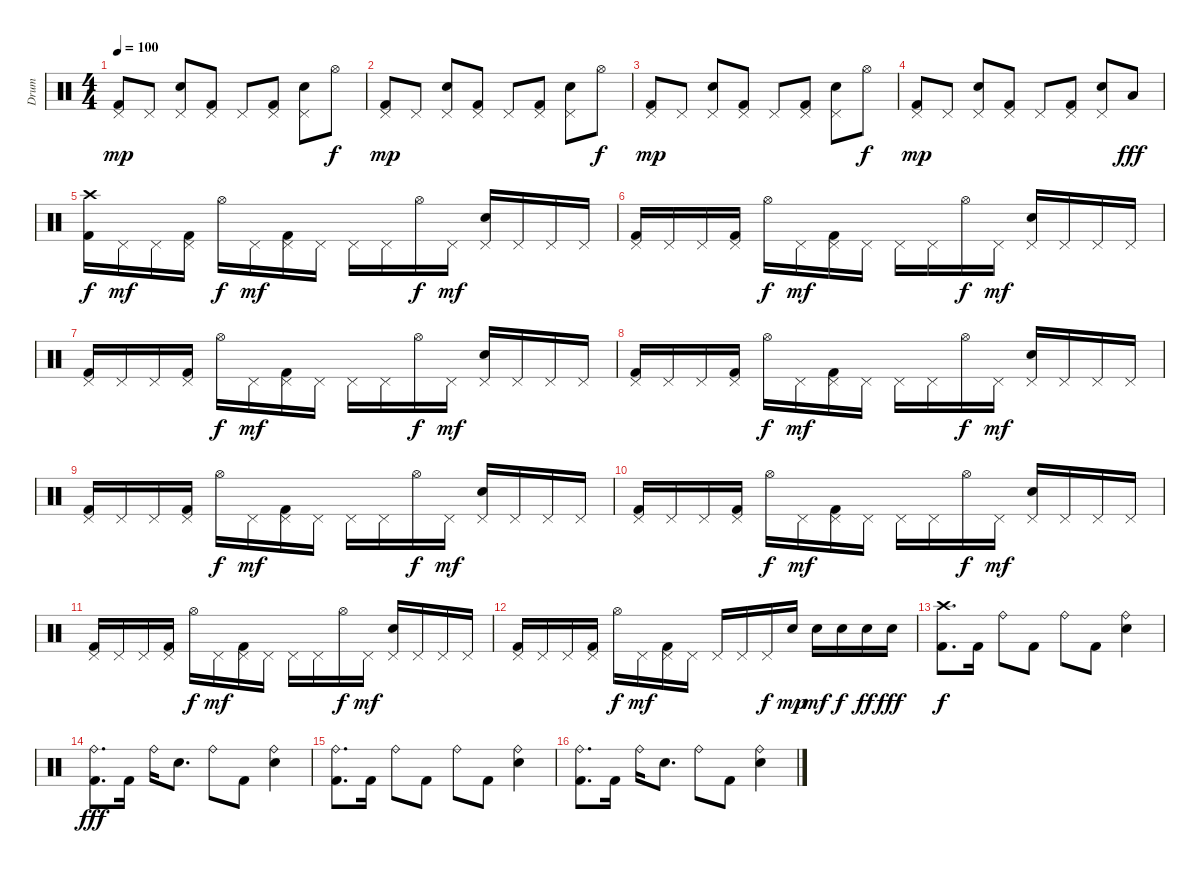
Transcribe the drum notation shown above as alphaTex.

\track ("Drum" "Drum") {instrument percussion}
\staff {score}
\articulation defaults
\ts (4 4)
\tempo 100
\clef neutral
\ks c
("Pedal Hi-Hat (hit)" "Kick (hit) 2").8{dy mp} "Pedal Hi-Hat (hit)".8 ("Pedal Hi-Hat (hit)" "Electric Snare (hit)").8 ("Pedal Hi-Hat (hit)" "Kick (hit) 2").8 "Pedal Hi-Hat (hit)".8 ("Pedal Hi-Hat (hit)" "Kick (hit) 2").8 ("Pedal Hi-Hat (hit)" "Electric Snare (hit)").8 "Hi-Hat (open)".8{dy f} |
("Pedal Hi-Hat (hit)" "Kick (hit) 2").8{dy mp} "Pedal Hi-Hat (hit)".8 ("Pedal Hi-Hat (hit)" "Electric Snare (hit)").8 ("Pedal Hi-Hat (hit)" "Kick (hit) 2").8 "Pedal Hi-Hat (hit)".8 ("Pedal Hi-Hat (hit)" "Kick (hit) 2").8 ("Pedal Hi-Hat (hit)" "Electric Snare (hit)").8 "Hi-Hat (open)".8{dy f} |
("Pedal Hi-Hat (hit)" "Kick (hit) 2").8{dy mp} "Pedal Hi-Hat (hit)".8 ("Pedal Hi-Hat (hit)" "Electric Snare (hit)").8 ("Pedal Hi-Hat (hit)" "Kick (hit) 2").8 "Pedal Hi-Hat (hit)".8 ("Pedal Hi-Hat (hit)" "Kick (hit) 2").8 ("Pedal Hi-Hat (hit)" "Electric Snare (hit)").8 "Hi-Hat (open)".8{dy f} |
("Pedal Hi-Hat (hit)" "Kick (hit) 2").8{dy mp} "Pedal Hi-Hat (hit)".8 ("Pedal Hi-Hat (hit)" "Electric Snare (hit)").8 ("Pedal Hi-Hat (hit)" "Kick (hit) 2").8 "Pedal Hi-Hat (hit)".8 ("Pedal Hi-Hat (hit)" "Kick (hit) 2").8 ("Pedal Hi-Hat (hit)" "Electric Snare (hit)").8 "Low Floor Tom (hit)".8{dy fff} |
("Crash high (hit)" "Kick (hit) 2").16{dy f} "Pedal Hi-Hat (hit)".16{dy mf} "Pedal Hi-Hat (hit)".16 ("Pedal Hi-Hat (hit)" "Kick (hit) 2").16 "Hi-Hat (open)".16{dy f} "Pedal Hi-Hat (hit)".16{dy mf} ("Pedal Hi-Hat (hit)" "Kick (hit) 2").16 "Pedal Hi-Hat (hit)".16 "Pedal Hi-Hat (hit)".16 "Pedal Hi-Hat (hit)".16 "Hi-Hat (open)".16{dy f} "Pedal Hi-Hat (hit)".16{dy mf} ("Pedal Hi-Hat (hit)" "Electric Snare (hit)").16 "Pedal Hi-Hat (hit)".16 "Pedal Hi-Hat (hit)".16 "Pedal Hi-Hat (hit)".16 |
("Pedal Hi-Hat (hit)" "Kick (hit) 2").16 "Pedal Hi-Hat (hit)".16 "Pedal Hi-Hat (hit)".16 ("Pedal Hi-Hat (hit)" "Kick (hit) 2").16 "Hi-Hat (open)".16{dy f} "Pedal Hi-Hat (hit)".16{dy mf} ("Pedal Hi-Hat (hit)" "Kick (hit) 2").16 "Pedal Hi-Hat (hit)".16 "Pedal Hi-Hat (hit)".16 "Pedal Hi-Hat (hit)".16 "Hi-Hat (open)".16{dy f} "Pedal Hi-Hat (hit)".16{dy mf} ("Pedal Hi-Hat (hit)" "Electric Snare (hit)").16 "Pedal Hi-Hat (hit)".16 "Pedal Hi-Hat (hit)".16 "Pedal Hi-Hat (hit)".16 |
("Pedal Hi-Hat (hit)" "Kick (hit) 2").16 "Pedal Hi-Hat (hit)".16 "Pedal Hi-Hat (hit)".16 ("Pedal Hi-Hat (hit)" "Kick (hit) 2").16 "Hi-Hat (open)".16{dy f} "Pedal Hi-Hat (hit)".16{dy mf} ("Pedal Hi-Hat (hit)" "Kick (hit) 2").16 "Pedal Hi-Hat (hit)".16 "Pedal Hi-Hat (hit)".16 "Pedal Hi-Hat (hit)".16 "Hi-Hat (open)".16{dy f} "Pedal Hi-Hat (hit)".16{dy mf} ("Pedal Hi-Hat (hit)" "Electric Snare (hit)").16 "Pedal Hi-Hat (hit)".16 "Pedal Hi-Hat (hit)".16 "Pedal Hi-Hat (hit)".16 |
("Pedal Hi-Hat (hit)" "Kick (hit) 2").16 "Pedal Hi-Hat (hit)".16 "Pedal Hi-Hat (hit)".16 ("Pedal Hi-Hat (hit)" "Kick (hit) 2").16 "Hi-Hat (open)".16{dy f} "Pedal Hi-Hat (hit)".16{dy mf} ("Pedal Hi-Hat (hit)" "Kick (hit) 2").16 "Pedal Hi-Hat (hit)".16 "Pedal Hi-Hat (hit)".16 "Pedal Hi-Hat (hit)".16 "Hi-Hat (open)".16{dy f} "Pedal Hi-Hat (hit)".16{dy mf} ("Pedal Hi-Hat (hit)" "Electric Snare (hit)").16 "Pedal Hi-Hat (hit)".16 "Pedal Hi-Hat (hit)".16 "Pedal Hi-Hat (hit)".16 |
("Pedal Hi-Hat (hit)" "Kick (hit) 2").16 "Pedal Hi-Hat (hit)".16 "Pedal Hi-Hat (hit)".16 ("Pedal Hi-Hat (hit)" "Kick (hit) 2").16 "Hi-Hat (open)".16{dy f} "Pedal Hi-Hat (hit)".16{dy mf} ("Pedal Hi-Hat (hit)" "Kick (hit) 2").16 "Pedal Hi-Hat (hit)".16 "Pedal Hi-Hat (hit)".16 "Pedal Hi-Hat (hit)".16 "Hi-Hat (open)".16{dy f} "Pedal Hi-Hat (hit)".16{dy mf} ("Pedal Hi-Hat (hit)" "Electric Snare (hit)").16 "Pedal Hi-Hat (hit)".16 "Pedal Hi-Hat (hit)".16 "Pedal Hi-Hat (hit)".16 |
("Pedal Hi-Hat (hit)" "Kick (hit) 2").16 "Pedal Hi-Hat (hit)".16 "Pedal Hi-Hat (hit)".16 ("Pedal Hi-Hat (hit)" "Kick (hit) 2").16 "Hi-Hat (open)".16{dy f} "Pedal Hi-Hat (hit)".16{dy mf} ("Pedal Hi-Hat (hit)" "Kick (hit) 2").16 "Pedal Hi-Hat (hit)".16 "Pedal Hi-Hat (hit)".16 "Pedal Hi-Hat (hit)".16 "Hi-Hat (open)".16{dy f} "Pedal Hi-Hat (hit)".16{dy mf} ("Pedal Hi-Hat (hit)" "Electric Snare (hit)").16 "Pedal Hi-Hat (hit)".16 "Pedal Hi-Hat (hit)".16 "Pedal Hi-Hat (hit)".16 |
("Pedal Hi-Hat (hit)" "Kick (hit) 2").16 "Pedal Hi-Hat (hit)".16 "Pedal Hi-Hat (hit)".16 ("Pedal Hi-Hat (hit)" "Kick (hit) 2").16 "Hi-Hat (open)".16{dy f} "Pedal Hi-Hat (hit)".16{dy mf} ("Pedal Hi-Hat (hit)" "Kick (hit) 2").16 "Pedal Hi-Hat (hit)".16 "Pedal Hi-Hat (hit)".16 "Pedal Hi-Hat (hit)".16 "Hi-Hat (open)".16{dy f} "Pedal Hi-Hat (hit)".16{dy mf} ("Pedal Hi-Hat (hit)" "Electric Snare (hit)").16 "Pedal Hi-Hat (hit)".16 "Pedal Hi-Hat (hit)".16 "Pedal Hi-Hat (hit)".16 |
("Pedal Hi-Hat (hit)" "Kick (hit) 2").16 "Pedal Hi-Hat (hit)".16 "Pedal Hi-Hat (hit)".16 ("Pedal Hi-Hat (hit)" "Kick (hit) 2").16 "Hi-Hat (open)".16{dy f} "Pedal Hi-Hat (hit)".16{dy mf} ("Pedal Hi-Hat (hit)" "Kick (hit) 2").16 "Pedal Hi-Hat (hit)".16 "Pedal Hi-Hat (hit)".16 "Pedal Hi-Hat (hit)".16 "Pedal Hi-Hat (hit)".16{dy f} "Electric Snare (hit)".16{dy mp} "Electric Snare (hit)".16{dy mf} "Electric Snare (hit)".16{dy f} "Electric Snare (hit)".16{dy ff} "Electric Snare (hit)".16{dy fff} |
("Crash high (hit)" "Kick (hit) 2").8{d dy f} "Kick (hit) 2".16 "Ride (bell)".8 "Kick (hit) 2".8 "Ride (bell)".8 "Kick (hit) 2".8 ("Ride (bell)" "Electric Snare (hit)").4 |
("Ride (bell)" "Kick (hit) 2").8{d dy fff} "Kick (hit) 2".16 "Ride (bell)".16 "Electric Snare (hit)".8{d} "Ride (bell)".8 "Kick (hit) 2".8 ("Ride (bell)" "Electric Snare (hit)").4 |
("Ride (bell)" "Kick (hit) 2").8{d} "Kick (hit) 2".16 "Ride (bell)".8 "Kick (hit) 2".8 "Ride (bell)".8 "Kick (hit) 2".8 ("Ride (bell)" "Electric Snare (hit)").4 |
("Ride (bell)" "Kick (hit) 2").8{d} "Kick (hit) 2".16 "Ride (bell)".16 "Electric Snare (hit)".8{d} "Ride (bell)".8 "Kick (hit) 2".8 ("Ride (bell)" "Electric Snare (hit)").4
